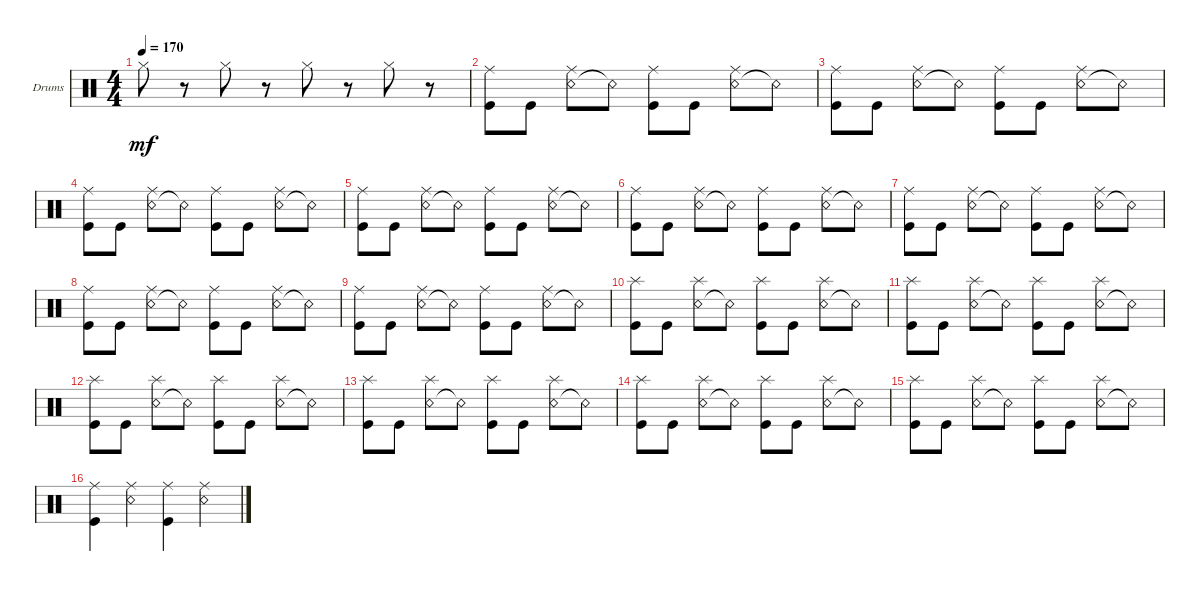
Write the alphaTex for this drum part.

\defaultSystemsLayout 4
\bracketExtendMode groupsimilarinstruments
\firstSystemTrackNameOrientation horizontal
\otherSystemsTrackNameOrientation horizontal
\track ("Drumkit" "Drums") {instrument percussion}
\staff {score}
\articulation defaults
\ts (4 4)
\tempo 170
\clef neutral
\ks c "Hi-Hat (closed)".8{dy mf}
r.8 "Hi-Hat (closed)".8 r.8 "Hi-Hat (closed)".8 r.8 "Hi-Hat (closed)".8 r.8 |
\scale
0.474178 ("Kick (hit)" "Ride (middle)").8 "Kick (hit)".8 ("Snare (rim shot)" "Ride (middle)").8 "Snare (rim shot)"{t}.8 ("Kick (hit)" "Ride (middle)").8 "Kick (hit)".8 ("Snare (rim shot)" "Ride (middle)").8 "Snare (rim shot)"{t}.8 |
\scale
0.262911 ("Kick (hit)" "Ride (middle)").8 "Kick (hit)".8 ("Snare (rim shot)" "Ride (middle)").8 "Snare (rim shot)"{t}.8 ("Kick (hit)" "Ride (middle)").8 "Kick (hit)".8 ("Snare (rim shot)" "Ride (middle)").8 "Snare (rim shot)"{t}.8 |
\scale
0.262911 ("Kick (hit)" "Ride (middle)").8 "Kick (hit)".8 ("Snare (rim shot)" "Ride (middle)").8 "Snare (rim shot)"{t}.8 ("Kick (hit)" "Ride (middle)").8 "Kick (hit)".8 ("Snare (rim shot)" "Ride (middle)").8 "Snare (rim shot)"{t}.8 |
\scale
0.333333 ("Kick (hit)" "Ride (middle)").8 "Kick (hit)".8 ("Snare (rim shot)" "Ride (middle)").8 "Snare (rim shot)"{t}.8 ("Kick (hit)" "Ride (middle)").8 "Kick (hit)".8 ("Snare (rim shot)" "Ride (middle)").8 "Snare (rim shot)"{t}.8 |
\scale
0.333333 ("Kick (hit)" "Ride (middle)").8 "Kick (hit)".8 ("Snare (rim shot)" "Ride (middle)").8 "Snare (rim shot)"{t}.8 ("Kick (hit)" "Ride (middle)").8 "Kick (hit)".8 ("Snare (rim shot)" "Ride (middle)").8 "Snare (rim shot)"{t}.8 |
\scale
0.333333 ("Kick (hit)" "Ride (middle)").8 "Kick (hit)".8 ("Snare (rim shot)" "Ride (middle)").8 "Snare (rim shot)"{t}.8 ("Kick (hit)" "Ride (middle)").8 "Kick (hit)".8 ("Snare (rim shot)" "Ride (middle)").8 "Snare (rim shot)"{t}.8 |
\scale
0.333333 ("Kick (hit)" "Ride (middle)").8 "Kick (hit)".8 ("Snare (rim shot)" "Ride (middle)").8 "Snare (rim shot)"{t}.8 ("Kick (hit)" "Ride (middle)").8 "Kick (hit)".8 ("Snare (rim shot)" "Ride (middle)").8 "Snare (rim shot)"{t}.8 |
\scale
0.333333 ("Kick (hit)" "Ride (middle)").8 "Kick (hit)".8 ("Snare (rim shot)" "Ride (middle)").8 "Snare (rim shot)"{t}.8 ("Kick (hit)" "Ride (middle)").8 "Kick (hit)".8 ("Snare (rim shot)" "Ride (middle)").8 "Snare (rim shot)"{t}.8 |
\scale
0.333333 ("Kick (hit)" "Splash (hit)").8 "Kick (hit)".8 ("Snare (rim shot)" "Splash (hit)").8 "Snare (rim shot)"{t}.8 ("Kick (hit)" "Splash (hit)").8 "Kick (hit)".8 ("Snare (rim shot)" "Splash (hit)").8 "Snare (rim shot)"{t}.8 |
\scale
0.333333 ("Kick (hit)" "Splash (hit)").8 "Kick (hit)".8 ("Snare (rim shot)" "Splash (hit)").8 "Snare (rim shot)"{t}.8 ("Kick (hit)" "Splash (hit)").8 "Kick (hit)".8 ("Snare (rim shot)" "Splash (hit)").8 "Snare (rim shot)"{t}.8 |
\scale
0.333333 ("Kick (hit)" "Splash (hit)").8 "Kick (hit)".8 ("Snare (rim shot)" "Splash (hit)").8 "Snare (rim shot)"{t}.8 ("Kick (hit)" "Splash (hit)").8 "Kick (hit)".8 ("Snare (rim shot)" "Splash (hit)").8 "Snare (rim shot)"{t}.8 |
\scale
0.333333 ("Kick (hit)" "Splash (hit)").8 "Kick (hit)".8 ("Snare (rim shot)" "Splash (hit)").8 "Snare (rim shot)"{t}.8 ("Kick (hit)" "Splash (hit)").8 "Kick (hit)".8 ("Snare (rim shot)" "Splash (hit)").8 "Snare (rim shot)"{t}.8 |
\scale
0.333333 ("Kick (hit)" "Splash (hit)").8 "Kick (hit)".8 ("Snare (rim shot)" "Splash (hit)").8 "Snare (rim shot)"{t}.8 ("Kick (hit)" "Splash (hit)").8 "Kick (hit)".8 ("Snare (rim shot)" "Splash (hit)").8 "Snare (rim shot)"{t}.8 |
\scale
0.333333 ("Kick (hit)" "Splash (hit)").8 "Kick (hit)".8 ("Snare (rim shot)" "Splash (hit)").8 "Snare (rim shot)"{t}.8 ("Kick (hit)" "Splash (hit)").8 "Kick (hit)".8 ("Snare (rim shot)" "Splash (hit)").8 "Snare (rim shot)"{t}.8 |
\scale
0.333333 ("Kick (hit)" "Ride (middle)").4 ("Snare (rim shot)" "Ride (middle)").4 ("Kick (hit)" "Ride (middle)").4 ("Snare (rim shot)" "Ride (middle)").4
